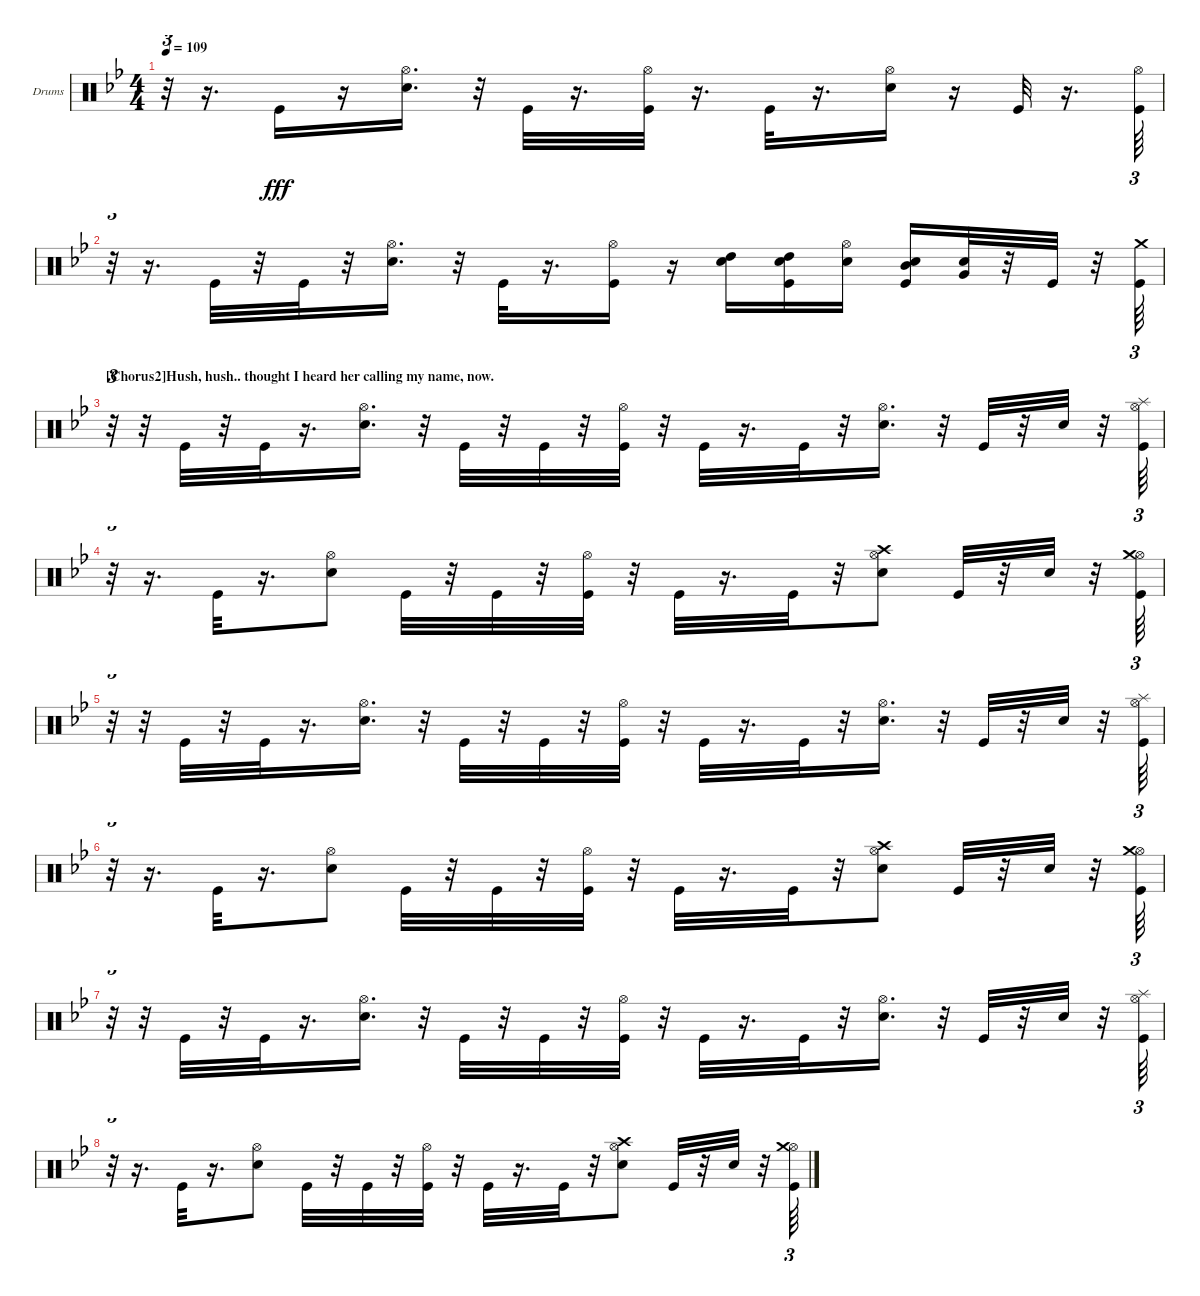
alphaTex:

\bracketExtendMode groupsimilarinstruments
\firstSystemTrackNameOrientation horizontal
\otherSystemsTrackNameOrientation horizontal
\track ("Drumkit" "Drums") {instrument percussion}
\staff {score}
\articulation defaults
\ts (4 4)
\tempo 109
\clef neutral
\ks gminor
r.32{tu (3 2) dy fff} r.16{d} "Kick (hit)".16 r.16 ("Snare (hit) 2" "Hi-Hat (open)").16{d} r.32 "Kick (hit)".32 r.16{d} ("Kick (hit)" "Hi-Hat (open)").32 r.16{d} "Kick (hit)".32 r.16{d} ("Snare (hit) 2" "Hi-Hat (open)").16 r.16 "Kick (hit)".32 r.16{d} ("Kick (hit)" "Hi-Hat (open)").64{tu (3 2)} |
r.32{tu (3 2)} r.16{d} "Kick (hit)".32 r.32 "Kick (hit)".32 r.32 ("Snare (hit) 2" "Hi-Hat (open)").16{d} r.32 "Kick (hit)".32 r.16{d} ("Kick (hit)" "Hi-Hat (open)").16 r.16 ("Snare (hit) 2" "High Tom (hit)").16 ("Kick (hit)" "Snare (hit) 2" "High Tom (hit)").16 ("Snare (hit) 2" "Hi-Hat (open)").16 ("Kick (hit)" "Snare (hit) 2" "Mid Tom (hit)").16 ("Snare (hit) 2" "Very Low Tom (hit)").32 r.32 "Kick (hit)".32 r.32 ("Kick (hit)" "Crash medium (hit)").64{tu (3 2)} |
\section ("" "[Chorus2]Hush, hush.. thought I heard her calling my name, now.")
r.32{tu (3 2)} r.32 "Kick (hit)".32 r.32 "Kick (hit)".32 r.16{d} ("Snare (hit) 2" "Hi-Hat (open)").16{d} r.32 "Kick (hit)".32 r.32 "Kick (hit)".32 r.32 ("Kick (hit)" "Hi-Hat (open)").32 r.32 "Kick (hit)".32 r.16{d} "Kick (hit)".32 r.32 ("Snare (hit) 2" "Hi-Hat (open)").16{d} r.32 "Kick (hit)".32 r.32 "Snare (hit) 2".32 r.32 ("Kick (hit)" "Hi-Hat (open)" "Splash (hit)").64{tu (3 2)} |
r.32{tu (3 2)} r.16{d} "Kick (hit)".32 r.16{d} ("Snare (hit) 2" "Hi-Hat (open)").8 "Kick (hit)".32 r.32 "Kick (hit)".32 r.32 ("Kick (hit)" "Hi-Hat (open)").32 r.32 "Kick (hit)".32 r.16{d} "Kick (hit)".32 r.32 ("Snare (hit) 2" "Hi-Hat (open)" "Crash high (hit)").8 "Kick (hit)".32 r.32 "Snare (hit) 2".32 r.32 ("Kick (hit)" "Hi-Hat (open)" "Crash medium (hit)").64{tu (3 2)} |
r.32{tu (3 2)} r.32 "Kick (hit)".32 r.32 "Kick (hit)".32 r.16{d} ("Snare (hit) 2" "Hi-Hat (open)").16{d} r.32 "Kick (hit)".32 r.32 "Kick (hit)".32 r.32 ("Kick (hit)" "Hi-Hat (open)").32 r.32 "Kick (hit)".32 r.16{d} "Kick (hit)".32 r.32 ("Snare (hit) 2" "Hi-Hat (open)").16{d} r.32 "Kick (hit)".32 r.32 "Snare (hit) 2".32 r.32 ("Kick (hit)" "Hi-Hat (open)" "Splash (hit)").64{tu (3 2)} |
r.32{tu (3 2)} r.16{d} "Kick (hit)".32 r.16{d} ("Snare (hit) 2" "Hi-Hat (open)").8 "Kick (hit)".32 r.32 "Kick (hit)".32 r.32 ("Kick (hit)" "Hi-Hat (open)").32 r.32 "Kick (hit)".32 r.16{d} "Kick (hit)".32 r.32 ("Snare (hit) 2" "Hi-Hat (open)" "Crash high (hit)").8 "Kick (hit)".32 r.32 "Snare (hit) 2".32 r.32 ("Kick (hit)" "Hi-Hat (open)" "Crash medium (hit)").64{tu (3 2)} |
r.32{tu (3 2)} r.32 "Kick (hit)".32 r.32 "Kick (hit)".32 r.16{d} ("Snare (hit) 2" "Hi-Hat (open)").16{d} r.32 "Kick (hit)".32 r.32 "Kick (hit)".32 r.32 ("Kick (hit)" "Hi-Hat (open)").32 r.32 "Kick (hit)".32 r.16{d} "Kick (hit)".32 r.32 ("Snare (hit) 2" "Hi-Hat (open)").16{d} r.32 "Kick (hit)".32 r.32 "Snare (hit) 2".32 r.32 ("Kick (hit)" "Hi-Hat (open)" "Splash (hit)").64{tu (3 2)} |
r.32{tu (3 2)} r.16{d} "Kick (hit)".32 r.16{d} ("Snare (hit) 2" "Hi-Hat (open)").8 "Kick (hit)".32 r.32 "Kick (hit)".32 r.32 ("Kick (hit)" "Hi-Hat (open)").32 r.32 "Kick (hit)".32 r.16{d} "Kick (hit)".32 r.32 ("Snare (hit) 2" "Hi-Hat (open)" "Crash high (hit)").8 "Kick (hit)".32 r.32 "Snare (hit) 2".32 r.32 ("Kick (hit)" "Hi-Hat (open)" "Crash medium (hit)").64{tu (3 2)}
